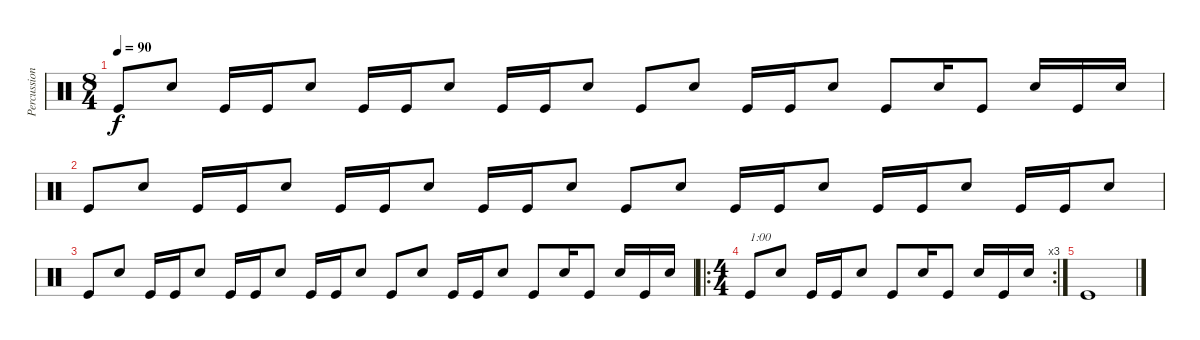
\track ("Percussion" "Percussion") {instrument percussion}
\staff {score}
\articulation defaults
\ts (8 4)
\tempo 90
\clef neutral
\ks c "Kick (hit)".8{dy f} "Snare (hit) 2".8 "Kick (hit)".16 "Kick (hit)".16 "Snare (hit) 2".8 "Kick (hit)".16 "Kick (hit)".16 "Snare (hit) 2".8 "Kick (hit)".16 "Kick (hit)".16 "Snare (hit) 2".8 "Kick (hit)".8 "Snare (hit) 2".8 "Kick (hit)".16 "Kick (hit)".16 "Snare (hit) 2".8 "Kick (hit)".8 "Snare (hit) 2".16 "Kick (hit)".8 "Snare (hit) 2".16 "Kick (hit)".16 "Snare (hit) 2".16
|
"Kick (hit)".8 "Snare (hit) 2".8 "Kick (hit)".16 "Kick (hit)".16 "Snare (hit) 2".8 "Kick (hit)".16 "Kick (hit)".16 "Snare (hit) 2".8 "Kick (hit)".16 "Kick (hit)".16 "Snare (hit) 2".8 "Kick (hit)".8 "Snare (hit) 2".8 "Kick (hit)".16 "Kick (hit)".16 "Snare (hit) 2".8 "Kick (hit)".16 "Kick (hit)".16 "Snare (hit) 2".8 "Kick (hit)".16 "Kick (hit)".16 "Snare (hit) 2".8 |
"Kick (hit)".8 "Snare (hit) 2".8 "Kick (hit)".16 "Kick (hit)".16 "Snare (hit) 2".8 "Kick (hit)".16 "Kick (hit)".16 "Snare (hit) 2".8 "Kick (hit)".16 "Kick (hit)".16 "Snare (hit) 2".8 "Kick (hit)".8 "Snare (hit) 2".8 "Kick (hit)".16 "Kick (hit)".16 "Snare (hit) 2".8 "Kick (hit)".8 "Snare (hit) 2".16 "Kick (hit)".8 "Snare (hit) 2".16 "Kick (hit)".16 "Snare (hit) 2".16 |
\ro
\rc 3
\ts (4 4)
"Kick (hit)".8{txt "1:00"} "Snare (hit) 2".8 "Kick (hit)".16 "Kick (hit)".16 "Snare (hit) 2".8 "Kick (hit)".8 "Snare (hit) 2".16 "Kick (hit)".8 "Snare (hit) 2".16 "Kick (hit)".16 "Snare (hit) 2".16 |
"Kick (hit)".1
